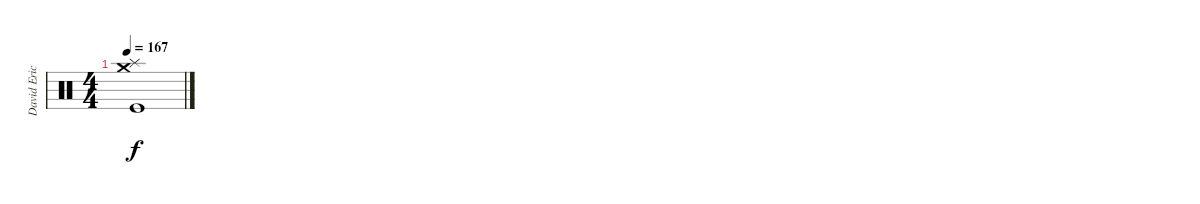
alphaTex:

\track ("David Eric Grohl" "David Eric") {instrument percussion}
\staff {score}
\articulation defaults
\ts (4 4)
\tempo 167
\clef neutral
\ks c
("Crash medium (hit)" "Splash (hit)" "Kick (hit)").1{dy f}
